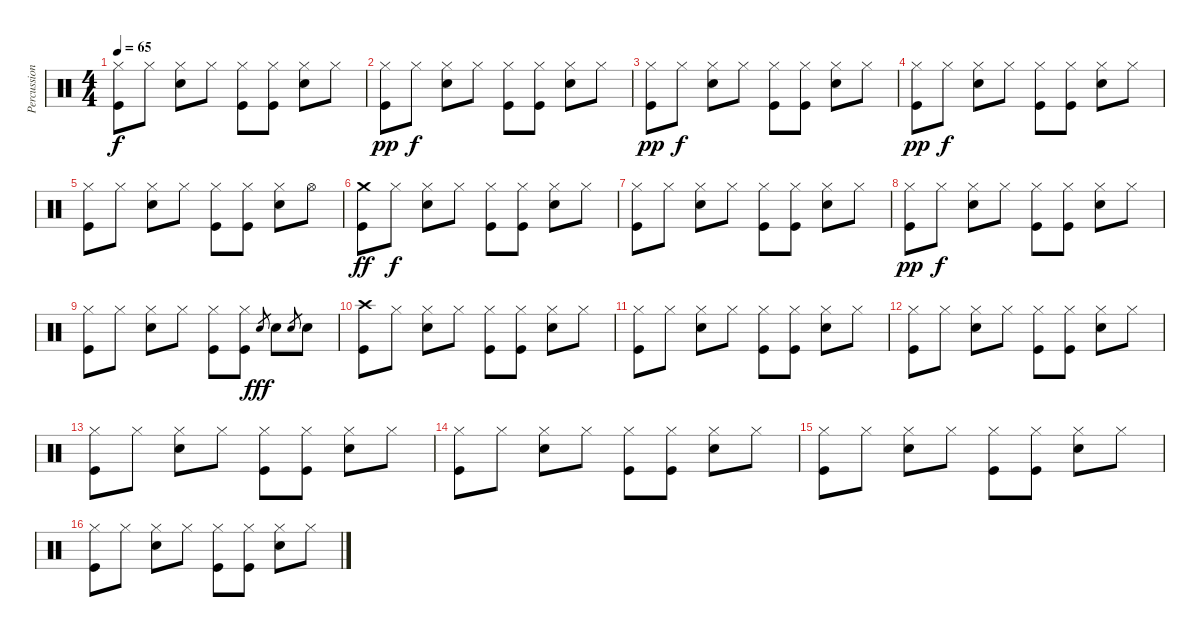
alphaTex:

\track ("Percussion" "Percussion") {instrument percussion}
\staff {score}
\articulation defaults
\ts (4 4)
\tempo 65
\clef neutral
\ks c
("Hi-Hat (closed)" "Kick (hit)").8{dy f} "Hi-Hat (closed)".8 ("Hi-Hat (closed)" "Electric Snare (hit)").8 "Hi-Hat (closed)".8 ("Hi-Hat (closed)" "Kick (hit)").8 ("Hi-Hat (closed)" "Kick (hit)").8 ("Hi-Hat (closed)" "Electric Snare (hit)").8 "Hi-Hat (closed)".8 |
("Hi-Hat (closed)" "Kick (hit)").8{dy pp} "Hi-Hat (closed)".8{dy f} ("Hi-Hat (closed)" "Electric Snare (hit)").8 "Hi-Hat (closed)".8 ("Hi-Hat (closed)" "Kick (hit)").8 ("Hi-Hat (closed)" "Kick (hit)").8 ("Hi-Hat (closed)" "Electric Snare (hit)").8 "Hi-Hat (closed)".8 |
("Hi-Hat (closed)" "Kick (hit)").8{dy pp} "Hi-Hat (closed)".8{dy f} ("Hi-Hat (closed)" "Electric Snare (hit)").8 "Hi-Hat (closed)".8 ("Hi-Hat (closed)" "Kick (hit)").8 ("Hi-Hat (closed)" "Kick (hit)").8 ("Hi-Hat (closed)" "Electric Snare (hit)").8 "Hi-Hat (closed)".8 |
("Hi-Hat (closed)" "Kick (hit)").8{dy pp} "Hi-Hat (closed)".8{dy f} ("Hi-Hat (closed)" "Electric Snare (hit)").8 "Hi-Hat (closed)".8 ("Hi-Hat (closed)" "Kick (hit)").8 ("Hi-Hat (closed)" "Kick (hit)").8 ("Hi-Hat (closed)" "Electric Snare (hit)").8 "Hi-Hat (closed)".8 |
("Hi-Hat (closed)" "Kick (hit)").8 "Hi-Hat (closed)".8 ("Hi-Hat (closed)" "Electric Snare (hit)").8 "Hi-Hat (closed)".8 ("Hi-Hat (closed)" "Kick (hit)").8 ("Hi-Hat (closed)" "Kick (hit)").8 ("Hi-Hat (closed)" "Electric Snare (hit)").8 "Hi-Hat (open)".8 |
("Crash medium (hit)" "Kick (hit)").8{dy ff} "Hi-Hat (closed)".8{dy f} ("Hi-Hat (closed)" "Electric Snare (hit)").8 "Hi-Hat (closed)".8 ("Hi-Hat (closed)" "Kick (hit)").8 ("Hi-Hat (closed)" "Kick (hit)").8 ("Hi-Hat (closed)" "Electric Snare (hit)").8 "Hi-Hat (closed)".8 |
("Hi-Hat (closed)" "Kick (hit)").8 "Hi-Hat (closed)".8 ("Hi-Hat (closed)" "Electric Snare (hit)").8 "Hi-Hat (closed)".8 ("Hi-Hat (closed)" "Kick (hit)").8 ("Hi-Hat (closed)" "Kick (hit)").8 ("Hi-Hat (closed)" "Electric Snare (hit)").8 "Hi-Hat (closed)".8 |
("Hi-Hat (closed)" "Kick (hit)").8{dy pp} "Hi-Hat (closed)".8{dy f} ("Hi-Hat (closed)" "Electric Snare (hit)").8 "Hi-Hat (closed)".8 ("Hi-Hat (closed)" "Kick (hit)").8 ("Hi-Hat (closed)" "Kick (hit)").8 ("Hi-Hat (closed)" "Electric Snare (hit)").8 "Hi-Hat (closed)".8 |
("Hi-Hat (closed)" "Kick (hit)").8 "Hi-Hat (closed)".8 ("Hi-Hat (closed)" "Electric Snare (hit)").8 "Hi-Hat (closed)".8 ("Hi-Hat (closed)" "Kick (hit)").8 ("Hi-Hat (closed)" "Kick (hit)").8 "Electric Snare (hit)".8{gr dy fff} "Electric Snare (hit)".8 "Electric Snare (hit)".8{gr} "Electric Snare (hit)".8 |
("Crash high (hit)" "Kick (hit)").8 "Hi-Hat (closed)".8 ("Hi-Hat (closed)" "Electric Snare (hit)").8 "Hi-Hat (closed)".8 ("Hi-Hat (closed)" "Kick (hit)").8 ("Hi-Hat (closed)" "Kick (hit)").8 ("Hi-Hat (closed)" "Electric Snare (hit)").8 "Hi-Hat (closed)".8 |
("Hi-Hat (closed)" "Kick (hit)").8 "Hi-Hat (closed)".8 ("Hi-Hat (closed)" "Electric Snare (hit)").8 "Hi-Hat (closed)".8 ("Hi-Hat (closed)" "Kick (hit)").8 ("Hi-Hat (closed)" "Kick (hit)").8 ("Hi-Hat (closed)" "Electric Snare (hit)").8 "Hi-Hat (closed)".8 |
("Hi-Hat (closed)" "Kick (hit)").8 "Hi-Hat (closed)".8 ("Hi-Hat (closed)" "Electric Snare (hit)").8 "Hi-Hat (closed)".8 ("Hi-Hat (closed)" "Kick (hit)").8 ("Hi-Hat (closed)" "Kick (hit)").8 ("Hi-Hat (closed)" "Electric Snare (hit)").8 "Hi-Hat (closed)".8 |
("Hi-Hat (closed)" "Kick (hit)").8 "Hi-Hat (closed)".8 ("Hi-Hat (closed)" "Electric Snare (hit)").8 "Hi-Hat (closed)".8 ("Hi-Hat (closed)" "Kick (hit)").8 ("Hi-Hat (closed)" "Kick (hit)").8 ("Hi-Hat (closed)" "Electric Snare (hit)").8 "Hi-Hat (closed)".8 |
("Hi-Hat (closed)" "Kick (hit)").8 "Hi-Hat (closed)".8 ("Hi-Hat (closed)" "Electric Snare (hit)").8 "Hi-Hat (closed)".8 ("Hi-Hat (closed)" "Kick (hit)").8 ("Hi-Hat (closed)" "Kick (hit)").8 ("Hi-Hat (closed)" "Electric Snare (hit)").8 "Hi-Hat (closed)".8 |
("Hi-Hat (closed)" "Kick (hit)").8 "Hi-Hat (closed)".8 ("Hi-Hat (closed)" "Electric Snare (hit)").8 "Hi-Hat (closed)".8 ("Hi-Hat (closed)" "Kick (hit)").8 ("Hi-Hat (closed)" "Kick (hit)").8 ("Hi-Hat (closed)" "Electric Snare (hit)").8 "Hi-Hat (closed)".8 |
("Hi-Hat (closed)" "Kick (hit)").8 "Hi-Hat (closed)".8 ("Hi-Hat (closed)" "Electric Snare (hit)").8 "Hi-Hat (closed)".8 ("Hi-Hat (closed)" "Kick (hit)").8 ("Hi-Hat (closed)" "Kick (hit)").8 ("Hi-Hat (closed)" "Electric Snare (hit)").8 "Hi-Hat (closed)".8
